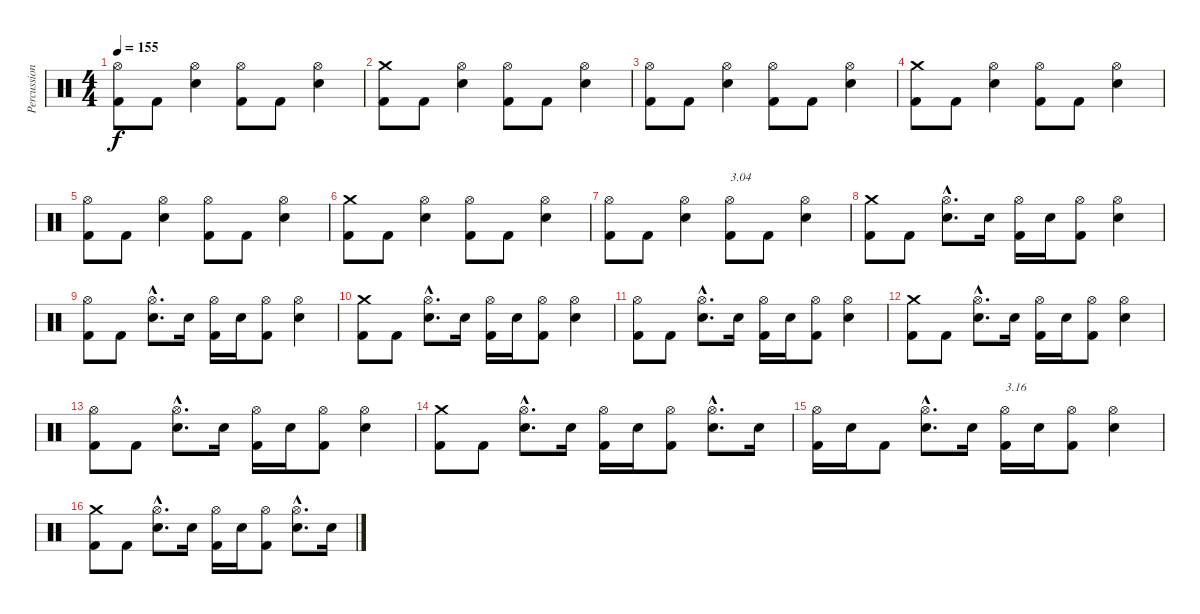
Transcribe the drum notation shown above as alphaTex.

\track ("Percussions" "Percussion") {instrument percussion}
\staff {score}
\articulation defaults
\ts (4 4)
\tempo 155
\clef neutral
\ks c
("Kick (hit) 2" "Hi-Hat (open)").8{dy f} "Kick (hit) 2".8 ("Electric Snare (hit)" "Hi-Hat (open)").4 ("Kick (hit) 2" "Hi-Hat (open)").8 "Kick (hit) 2".8 ("Electric Snare (hit)" "Hi-Hat (open)").4 |
("Kick (hit) 2" "Crash medium (hit)").8 "Kick (hit) 2".8 ("Electric Snare (hit)" "Hi-Hat (open)").4 ("Kick (hit) 2" "Hi-Hat (open)").8 "Kick (hit) 2".8 ("Electric Snare (hit)" "Hi-Hat (open)").4 |
("Kick (hit) 2" "Hi-Hat (open)").8 "Kick (hit) 2".8 ("Electric Snare (hit)" "Hi-Hat (open)").4 ("Kick (hit) 2" "Hi-Hat (open)").8 "Kick (hit) 2".8 ("Electric Snare (hit)" "Hi-Hat (open)").4 |
("Kick (hit) 2" "Crash medium (hit)").8 "Kick (hit) 2".8 ("Electric Snare (hit)" "Hi-Hat (open)").4 ("Kick (hit) 2" "Hi-Hat (open)").8 "Kick (hit) 2".8 ("Electric Snare (hit)" "Hi-Hat (open)").4 |
("Kick (hit) 2" "Hi-Hat (open)").8 "Kick (hit) 2".8 ("Electric Snare (hit)" "Hi-Hat (open)").4 ("Kick (hit) 2" "Hi-Hat (open)").8 "Kick (hit) 2".8 ("Electric Snare (hit)" "Hi-Hat (open)").4 |
("Kick (hit) 2" "Crash medium (hit)").8 "Kick (hit) 2".8 ("Electric Snare (hit)" "Hi-Hat (open)").4 ("Kick (hit) 2" "Hi-Hat (open)").8 "Kick (hit) 2".8 ("Electric Snare (hit)" "Hi-Hat (open)").4 |
("Kick (hit) 2" "Hi-Hat (open)").8 "Kick (hit) 2".8 ("Electric Snare (hit)" "Hi-Hat (open)").4 ("Kick (hit) 2" "Hi-Hat (open)").8{txt "3.04"} "Kick (hit) 2".8 ("Electric Snare (hit)" "Hi-Hat (open)").4 |
("Kick (hit) 2" "Crash medium (hit)").8 "Kick (hit) 2".8 ("Electric Snare (hit)"{hac} "Hi-Hat (open)"{hac}).8{d} "Electric Snare (hit)".16 ("Kick (hit) 2" "Hi-Hat (open)").16 "Electric Snare (hit)".16 ("Kick (hit) 2" "Hi-Hat (open)").8 ("Electric Snare (hit)" "Hi-Hat (open)").4 |
("Kick (hit) 2" "Hi-Hat (open)").8 "Kick (hit) 2".8 ("Electric Snare (hit)"{hac} "Hi-Hat (open)"{hac}).8{d} "Electric Snare (hit)".16 ("Kick (hit) 2" "Hi-Hat (open)").16 "Electric Snare (hit)".16 ("Kick (hit) 2" "Hi-Hat (open)").8 ("Electric Snare (hit)" "Hi-Hat (open)").4 |
("Kick (hit) 2" "Crash medium (hit)").8 "Kick (hit) 2".8 ("Electric Snare (hit)"{hac} "Hi-Hat (open)"{hac}).8{d} "Electric Snare (hit)".16 ("Kick (hit) 2" "Hi-Hat (open)").16 "Electric Snare (hit)".16 ("Kick (hit) 2" "Hi-Hat (open)").8 ("Electric Snare (hit)" "Hi-Hat (open)").4 |
("Kick (hit) 2" "Hi-Hat (open)").8 "Kick (hit) 2".8 ("Electric Snare (hit)"{hac} "Hi-Hat (open)"{hac}).8{d} "Electric Snare (hit)".16 ("Kick (hit) 2" "Hi-Hat (open)").16 "Electric Snare (hit)".16 ("Kick (hit) 2" "Hi-Hat (open)").8 ("Electric Snare (hit)" "Hi-Hat (open)").4 |
("Kick (hit) 2" "Crash medium (hit)").8 "Kick (hit) 2".8 ("Electric Snare (hit)"{hac} "Hi-Hat (open)"{hac}).8{d} "Electric Snare (hit)".16 ("Kick (hit) 2" "Hi-Hat (open)").16 "Electric Snare (hit)".16 ("Kick (hit) 2" "Hi-Hat (open)").8 ("Electric Snare (hit)" "Hi-Hat (open)").4 |
("Kick (hit) 2" "Hi-Hat (open)").8 "Kick (hit) 2".8 ("Electric Snare (hit)"{hac} "Hi-Hat (open)"{hac}).8{d} "Electric Snare (hit)".16 ("Kick (hit) 2" "Hi-Hat (open)").16 "Electric Snare (hit)".16 ("Kick (hit) 2" "Hi-Hat (open)").8 ("Electric Snare (hit)" "Hi-Hat (open)").4 |
("Kick (hit) 2" "Crash medium (hit)").8 "Kick (hit) 2".8 ("Electric Snare (hit)"{hac} "Hi-Hat (open)"{hac}).8{d} "Electric Snare (hit)".16 ("Kick (hit) 2" "Hi-Hat (open)").16 "Electric Snare (hit)".16 ("Kick (hit) 2" "Hi-Hat (open)").8 ("Electric Snare (hit)"{hac} "Hi-Hat (open)"{hac}).8{d} "Electric Snare (hit)".16 |
("Kick (hit) 2" "Hi-Hat (open)").16 "Electric Snare (hit)".16 "Kick (hit) 2".8 ("Electric Snare (hit)"{hac} "Hi-Hat (open)"{hac}).8{d} "Electric Snare (hit)".16 ("Kick (hit) 2" "Hi-Hat (open)").16{txt "3.16"} "Electric Snare (hit)".16 ("Kick (hit) 2" "Hi-Hat (open)").8 ("Electric Snare (hit)" "Hi-Hat (open)").4 |
("Kick (hit) 2" "Crash medium (hit)").8 "Kick (hit) 2".8 ("Electric Snare (hit)"{hac} "Hi-Hat (open)"{hac}).8{d} "Electric Snare (hit)".16 ("Kick (hit) 2" "Hi-Hat (open)").16 "Electric Snare (hit)".16 ("Kick (hit) 2" "Hi-Hat (open)").8 ("Electric Snare (hit)"{hac} "Hi-Hat (open)"{hac}).8{d} "Electric Snare (hit)".16
